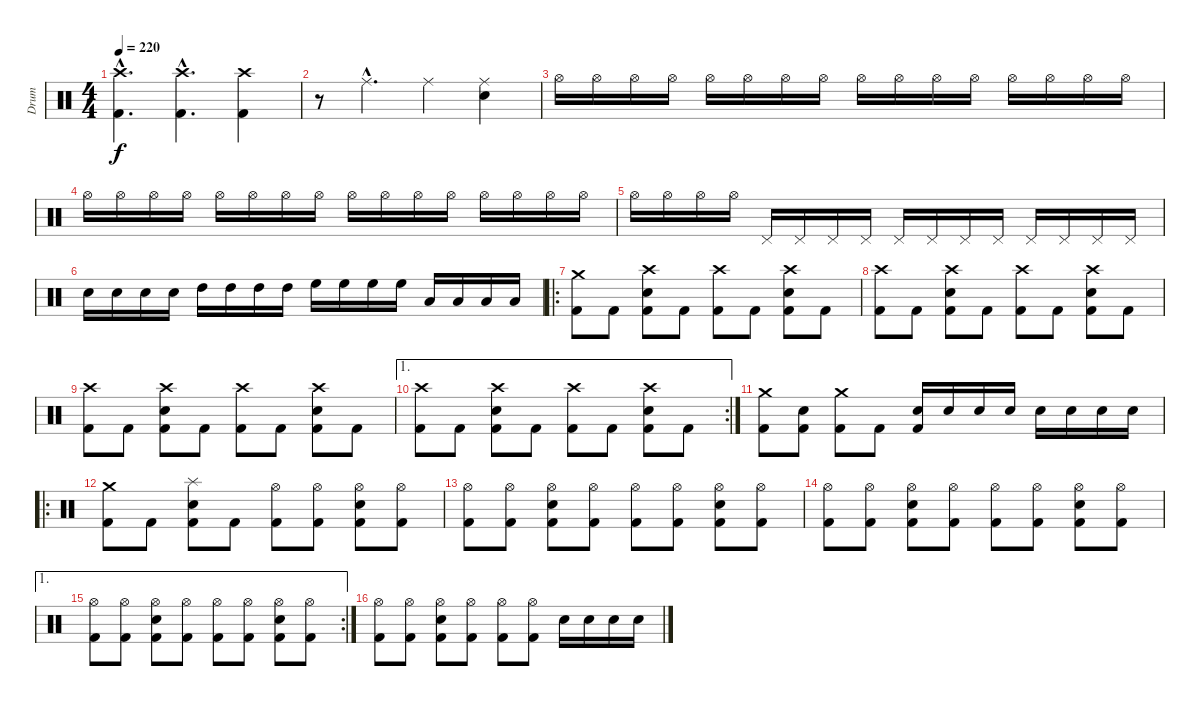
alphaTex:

\track ("Drum" "Drum") {instrument percussion}
\staff {score}
\articulation defaults
\ts (4 4)
\tempo 220
\clef neutral
\ks c
("Crash high (hit)"{hac} "Kick (hit) 2"{hac}).4{d dy f} ("Crash high (hit)"{hac} "Kick (hit) 2"{hac}).4{d} ("Crash high (hit)" "Kick (hit) 2").4 |
r.8 "Ride (middle)"{hac}.4{d} "Ride (middle)".4 ("Ride (middle)" "Electric Snare (hit)").4 |
"Hi-Hat (open)".16 "Hi-Hat (open)".16 "Hi-Hat (open)".16 "Hi-Hat (open)".16 "Hi-Hat (open)".16 "Hi-Hat (open)".16 "Hi-Hat (open)".16 "Hi-Hat (open)".16 "Hi-Hat (open)".16 "Hi-Hat (open)".16 "Hi-Hat (open)".16 "Hi-Hat (open)".16 "Hi-Hat (open)".16 "Hi-Hat (open)".16 "Hi-Hat (open)".16 "Hi-Hat (open)".16 |
"Hi-Hat (open)".16 "Hi-Hat (open)".16 "Hi-Hat (open)".16 "Hi-Hat (open)".16 "Hi-Hat (open)".16 "Hi-Hat (open)".16 "Hi-Hat (open)".16 "Hi-Hat (open)".16 "Hi-Hat (open)".16 "Hi-Hat (open)".16 "Hi-Hat (open)".16 "Hi-Hat (open)".16 "Hi-Hat (open)".16 "Hi-Hat (open)".16 "Hi-Hat (open)".16 "Hi-Hat (open)".16 |
"Hi-Hat (open)".16 "Hi-Hat (open)".16 "Hi-Hat (open)".16 "Hi-Hat (open)".16 "Pedal Hi-Hat (hit)".16 "Pedal Hi-Hat (hit)".16 "Pedal Hi-Hat (hit)".16 "Pedal Hi-Hat (hit)".16 "Pedal Hi-Hat (hit)".16 "Pedal Hi-Hat (hit)".16 "Pedal Hi-Hat (hit)".16 "Pedal Hi-Hat (hit)".16 "Pedal Hi-Hat (hit)".16 "Pedal Hi-Hat (hit)".16 "Pedal Hi-Hat (hit)".16 "Pedal Hi-Hat (hit)".16 |
"Electric Snare (hit)".16 "Electric Snare (hit)".16 "Electric Snare (hit)".16 "Electric Snare (hit)".16 "High Tom (hit)".16 "High Tom (hit)".16 "High Tom (hit)".16 "High Tom (hit)".16 "High Floor Tom (hit)".16 "High Floor Tom (hit)".16 "High Floor Tom (hit)".16 "High Floor Tom (hit)".16 "Low Floor Tom (hit)".16 "Low Floor Tom (hit)".16 "Low Floor Tom (hit)".16 "Low Floor Tom (hit)".16 |
\ro
("Crash medium (hit)" "Kick (hit) 2").8 "Kick (hit) 2".8 ("Crash high (hit)" "Electric Snare (hit)" "Kick (hit) 2").8 "Kick (hit) 2".8 ("Crash high (hit)" "Kick (hit) 2").8 "Kick (hit) 2".8 ("Crash high (hit)" "Electric Snare (hit)" "Kick (hit) 2").8 "Kick (hit) 2".8 |
("Crash high (hit)" "Kick (hit) 2").8 "Kick (hit) 2".8 ("Crash high (hit)" "Electric Snare (hit)" "Kick (hit) 2").8 "Kick (hit) 2".8 ("Crash high (hit)" "Kick (hit) 2").8 "Kick (hit) 2".8 ("Crash high (hit)" "Electric Snare (hit)" "Kick (hit) 2").8 "Kick (hit) 2".8 |
("Crash high (hit)" "Kick (hit) 2").8 "Kick (hit) 2".8 ("Crash high (hit)" "Electric Snare (hit)" "Kick (hit) 2").8 "Kick (hit) 2".8 ("Crash high (hit)" "Kick (hit) 2").8 "Kick (hit) 2".8 ("Crash high (hit)" "Electric Snare (hit)" "Kick (hit) 2").8 "Kick (hit) 2".8 |
\ae 1
\rc 2
("Crash high (hit)" "Kick (hit) 2").8 "Kick (hit) 2".8 ("Crash high (hit)" "Electric Snare (hit)" "Kick (hit) 2").8 "Kick (hit) 2".8 ("Crash high (hit)" "Kick (hit) 2").8 "Kick (hit) 2".8 ("Crash high (hit)" "Electric Snare (hit)" "Kick (hit) 2").8 "Kick (hit) 2".8 |
("Crash medium (hit)" "Kick (hit) 2").8 ("Electric Snare (hit)" "Kick (hit) 2").8 ("Crash medium (hit)" "Kick (hit) 2").8 "Kick (hit) 2".8 ("Electric Snare (hit)" "Kick (hit) 2").16 "Electric Snare (hit)".16 "Electric Snare (hit)".16 "Electric Snare (hit)".16 "Electric Snare (hit)".16 "Electric Snare (hit)".16 "Electric Snare (hit)".16 "Electric Snare (hit)".16 |
\ro
("Crash medium (hit)" "Kick (hit) 2").8 "Kick (hit) 2".8 ("Splash (hit)" "Electric Snare (hit)" "Kick (hit) 2").8 "Kick (hit) 2".8 ("Hi-Hat (open)" "Kick (hit) 2").8 ("Hi-Hat (open)" "Kick (hit) 2").8 ("Hi-Hat (open)" "Electric Snare (hit)" "Kick (hit) 2").8 ("Hi-Hat (open)" "Kick (hit) 2").8 |
("Hi-Hat (open)" "Kick (hit) 2").8 ("Hi-Hat (open)" "Kick (hit) 2").8 ("Hi-Hat (open)" "Electric Snare (hit)" "Kick (hit) 2").8 ("Hi-Hat (open)" "Kick (hit) 2").8 ("Hi-Hat (open)" "Kick (hit) 2").8 ("Hi-Hat (open)" "Kick (hit) 2").8 ("Hi-Hat (open)" "Electric Snare (hit)" "Kick (hit) 2").8 ("Hi-Hat (open)" "Kick (hit) 2").8 |
("Hi-Hat (open)" "Kick (hit) 2").8 ("Hi-Hat (open)" "Kick (hit) 2").8 ("Hi-Hat (open)" "Electric Snare (hit)" "Kick (hit) 2").8 ("Hi-Hat (open)" "Kick (hit) 2").8 ("Hi-Hat (open)" "Kick (hit) 2").8 ("Hi-Hat (open)" "Kick (hit) 2").8 ("Hi-Hat (open)" "Electric Snare (hit)" "Kick (hit) 2").8 ("Hi-Hat (open)" "Kick (hit) 2").8 |
\ae 1
\rc 2
("Hi-Hat (open)" "Kick (hit) 2").8 ("Hi-Hat (open)" "Kick (hit) 2").8 ("Hi-Hat (open)" "Electric Snare (hit)" "Kick (hit) 2").8 ("Hi-Hat (open)" "Kick (hit) 2").8 ("Hi-Hat (open)" "Kick (hit) 2").8 ("Hi-Hat (open)" "Kick (hit) 2").8 ("Hi-Hat (open)" "Electric Snare (hit)" "Kick (hit) 2").8 ("Hi-Hat (open)" "Kick (hit) 2").8 |
("Hi-Hat (open)" "Kick (hit) 2").8 ("Hi-Hat (open)" "Kick (hit) 2").8 ("Hi-Hat (open)" "Electric Snare (hit)" "Kick (hit) 2").8 ("Hi-Hat (open)" "Kick (hit) 2").8 ("Hi-Hat (open)" "Kick (hit) 2").8 ("Hi-Hat (open)" "Kick (hit) 2").8 "Electric Snare (hit)".16 "Electric Snare (hit)".16 "Electric Snare (hit)".16 "Electric Snare (hit)".16
